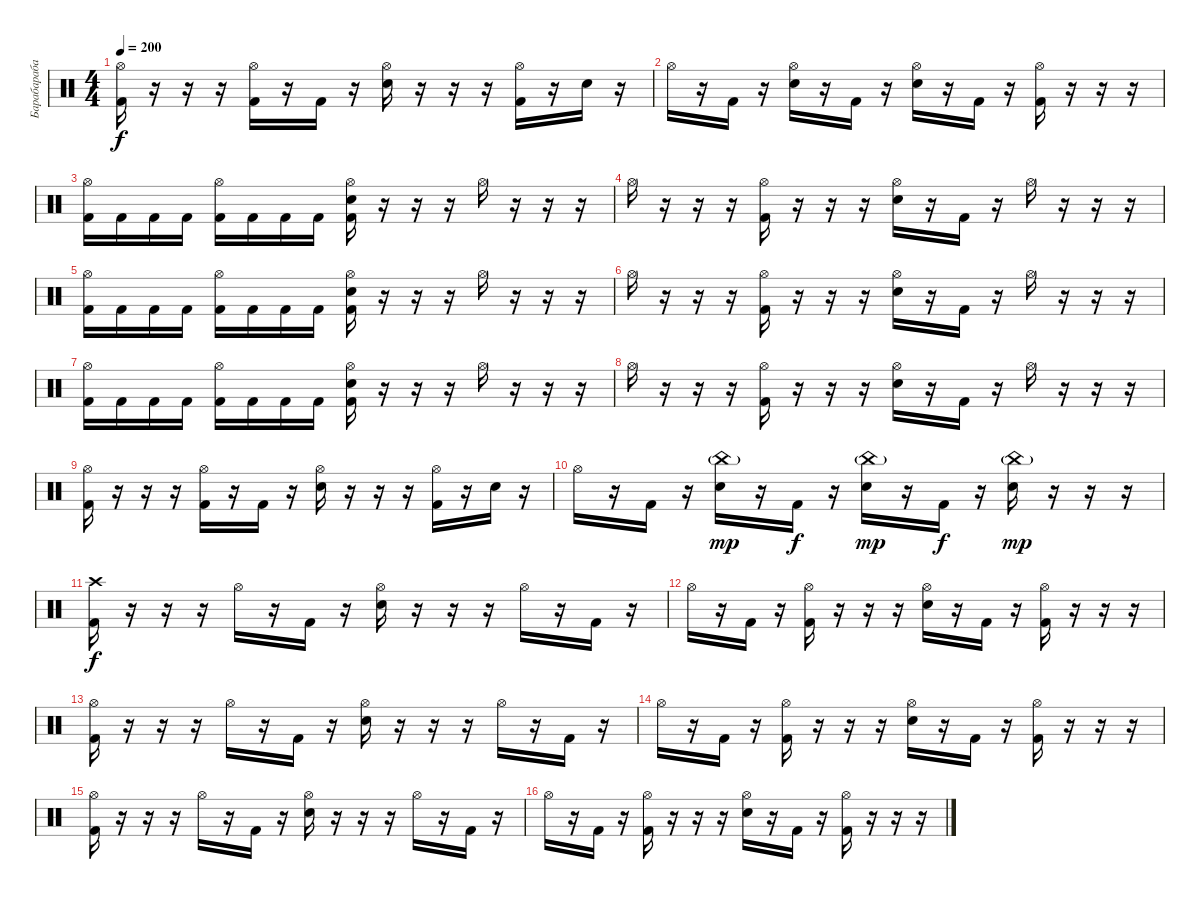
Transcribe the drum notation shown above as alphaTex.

\track ("Барабарабаны" "Барабараба") {instrument percussion}
\staff {score}
\articulation defaults
\ts (4 4)
\tempo 200
\clef neutral
\ks c
("Hi-Hat (open)" "Kick (hit) 2").16{dy f} r.16 r.16 r.16 ("Hi-Hat (open)" "Kick (hit) 2").16 r.16 "Kick (hit) 2".16 r.16 ("Hi-Hat (open)" "Electric Snare (hit)").16 r.16 r.16 r.16 ("Hi-Hat (open)" "Kick (hit) 2").16 r.16 "Electric Snare (hit)".16 r.16 |
"Hi-Hat (open)".16 r.16 "Kick (hit) 2".16 r.16 ("Hi-Hat (open)" "Electric Snare (hit)").16 r.16 "Kick (hit) 2".16 r.16 ("Hi-Hat (open)" "Electric Snare (hit)").16 r.16 "Kick (hit) 2".16 r.16 ("Hi-Hat (open)" "Kick (hit) 2").16 r.16 r.16 r.16 |
("Kick (hit) 2" "Hi-Hat (open)").16 "Kick (hit) 2".16 "Kick (hit) 2".16 "Kick (hit) 2".16 ("Kick (hit) 2" "Hi-Hat (open)").16 "Kick (hit) 2".16 "Kick (hit) 2".16 "Kick (hit) 2".16 ("Kick (hit) 2" "Electric Snare (hit)" "Hi-Hat (open)").16 r.16 r.16 r.16 "Hi-Hat (open)".16 r.16 r.16 r.16 |
"Hi-Hat (open)".16 r.16 r.16 r.16 ("Hi-Hat (open)" "Kick (hit) 2").16 r.16 r.16 r.16 ("Hi-Hat (open)" "Electric Snare (hit)").16 r.16 "Kick (hit) 2".16 r.16 "Hi-Hat (open)".16 r.16 r.16 r.16 |
("Kick (hit) 2" "Hi-Hat (open)").16 "Kick (hit) 2".16 "Kick (hit) 2".16 "Kick (hit) 2".16 ("Kick (hit) 2" "Hi-Hat (open)").16 "Kick (hit) 2".16 "Kick (hit) 2".16 "Kick (hit) 2".16 ("Kick (hit) 2" "Electric Snare (hit)" "Hi-Hat (open)").16 r.16 r.16 r.16 "Hi-Hat (open)".16 r.16 r.16 r.16 |
"Hi-Hat (open)".16 r.16 r.16 r.16 ("Hi-Hat (open)" "Kick (hit) 2").16 r.16 r.16 r.16 ("Hi-Hat (open)" "Electric Snare (hit)").16 r.16 "Kick (hit) 2".16 r.16 "Hi-Hat (open)".16 r.16 r.16 r.16 |
("Kick (hit) 2" "Hi-Hat (open)").16 "Kick (hit) 2".16 "Kick (hit) 2".16 "Kick (hit) 2".16 ("Kick (hit) 2" "Hi-Hat (open)").16 "Kick (hit) 2".16 "Kick (hit) 2".16 "Kick (hit) 2".16 ("Kick (hit) 2" "Electric Snare (hit)" "Hi-Hat (open)").16 r.16 r.16 r.16 "Hi-Hat (open)".16 r.16 r.16 r.16 |
"Hi-Hat (open)".16 r.16 r.16 r.16 ("Hi-Hat (open)" "Kick (hit) 2").16 r.16 r.16 r.16 ("Hi-Hat (open)" "Electric Snare (hit)").16 r.16 "Kick (hit) 2".16 r.16 "Hi-Hat (open)".16 r.16 r.16 r.16 |
("Hi-Hat (open)" "Kick (hit) 2").16 r.16 r.16 r.16 ("Hi-Hat (open)" "Kick (hit) 2").16 r.16 "Kick (hit) 2".16 r.16 ("Hi-Hat (open)" "Electric Snare (hit)").16 r.16 r.16 r.16 ("Hi-Hat (open)" "Kick (hit) 2").16 r.16 "Electric Snare (hit)".16 r.16 |
"Hi-Hat (open)".16 r.16 "Kick (hit) 2".16 r.16 ("China (hit)"{g} "Electric Snare (hit)").16{dy mp} r.16 "Kick (hit) 2".16{dy f} r.16 ("China (hit)"{g} "Electric Snare (hit)").16{dy mp} r.16 "Kick (hit) 2".16{dy f} r.16 ("China (hit)"{g} "Electric Snare (hit)").16{dy mp} r.16 r.16 r.16 |
("Crash high (hit)" "Kick (hit) 2").16{dy f} r.16 r.16 r.16 "Hi-Hat (open)".16 r.16 "Kick (hit) 2".16 r.16 ("Hi-Hat (open)" "Electric Snare (hit)").16 r.16 r.16 r.16 "Hi-Hat (open)".16 r.16 "Kick (hit) 2".16 r.16 |
"Hi-Hat (open)".16 r.16 "Kick (hit) 2".16 r.16 ("Hi-Hat (open)" "Kick (hit) 2").16 r.16 r.16 r.16 ("Hi-Hat (open)" "Electric Snare (hit)").16 r.16 "Kick (hit) 2".16 r.16 ("Hi-Hat (open)" "Kick (hit) 2").16 r.16 r.16 r.16 |
("Hi-Hat (open)" "Kick (hit) 2").16 r.16 r.16 r.16 "Hi-Hat (open)".16 r.16 "Kick (hit) 2".16 r.16 ("Hi-Hat (open)" "Electric Snare (hit)").16 r.16 r.16 r.16 "Hi-Hat (open)".16 r.16 "Kick (hit) 2".16 r.16 |
"Hi-Hat (open)".16 r.16 "Kick (hit) 2".16 r.16 ("Hi-Hat (open)" "Kick (hit) 2").16 r.16 r.16 r.16 ("Hi-Hat (open)" "Electric Snare (hit)").16 r.16 "Kick (hit) 2".16 r.16 ("Hi-Hat (open)" "Kick (hit) 2").16 r.16 r.16 r.16 |
("Hi-Hat (open)" "Kick (hit) 2").16 r.16 r.16 r.16 "Hi-Hat (open)".16 r.16 "Kick (hit) 2".16 r.16 ("Hi-Hat (open)" "Electric Snare (hit)").16 r.16 r.16 r.16 "Hi-Hat (open)".16 r.16 "Kick (hit) 2".16 r.16 |
"Hi-Hat (open)".16 r.16 "Kick (hit) 2".16 r.16 ("Hi-Hat (open)" "Kick (hit) 2").16 r.16 r.16 r.16 ("Hi-Hat (open)" "Electric Snare (hit)").16 r.16 "Kick (hit) 2".16 r.16 ("Hi-Hat (open)" "Kick (hit) 2").16 r.16 r.16 r.16
